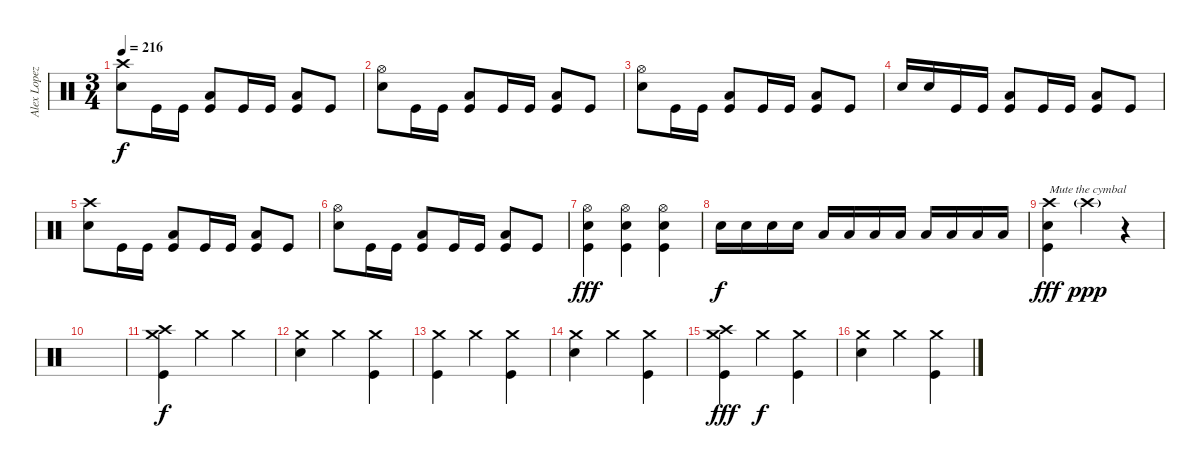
\track ("Alex Lopez" "Alex Lopez") {instrument percussion}
\staff {score}
\articulation defaults
\ts (3 4)
\tempo 216
\clef neutral
\ks c
("Crash high (hit)" "Electric Snare (hit)").8{dy f} "Kick (hit)".16 "Kick (hit)".16 ("Low Tom (hit)" "Kick (hit)").8 "Kick (hit)".16 "Kick (hit)".16 ("Low Floor Tom (hit)" "Kick (hit)").8 "Kick (hit)".8 |
("Hi-Hat (open)" "Electric Snare (hit)").8 "Kick (hit)".16 "Kick (hit)".16 ("Low Tom (hit)" "Kick (hit)").8 "Kick (hit)".16 "Kick (hit)".16 ("Low Floor Tom (hit)" "Kick (hit)").8 "Kick (hit)".8 |
("Hi-Hat (open)" "Electric Snare (hit)").8 "Kick (hit)".16 "Kick (hit)".16 ("Low Tom (hit)" "Kick (hit)").8 "Kick (hit)".16 "Kick (hit)".16 ("Low Floor Tom (hit)" "Kick (hit)").8 "Kick (hit)".8 |
"Electric Snare (hit)".16 "Electric Snare (hit)".16 "Kick (hit)".16 "Kick (hit)".16 ("Low Tom (hit)" "Kick (hit)").8 "Kick (hit)".16 "Kick (hit)".16 ("Low Tom (hit)" "Kick (hit)").8 "Kick (hit)".8 |
("Crash high (hit)" "Electric Snare (hit)").8 "Kick (hit)".16 "Kick (hit)".16 ("Low Tom (hit)" "Kick (hit)").8 "Kick (hit)".16 "Kick (hit)".16 ("Low Floor Tom (hit)" "Kick (hit)").8 "Kick (hit)".8 |
("Hi-Hat (open)" "Electric Snare (hit)").8 "Kick (hit)".16 "Kick (hit)".16 ("Low Tom (hit)" "Kick (hit)").8 "Kick (hit)".16 "Kick (hit)".16 ("Low Floor Tom (hit)" "Kick (hit)").8 "Kick (hit)".8 |
("Hi-Hat (open)" "Electric Snare (hit)" "Kick (hit)").4{dy fff} ("Hi-Hat (open)" "Electric Snare (hit)" "Kick (hit)").4 ("Hi-Hat (open)" "Electric Snare (hit)" "Kick (hit)").4 |
"Electric Snare (hit)".16{dy f} "Electric Snare (hit)".16 "Electric Snare (hit)".16 "Electric Snare (hit)".16 "Low Tom (hit)".16 "Low Tom (hit)".16 "Low Tom (hit)".16 "Low Tom (hit)".16 "Low Floor Tom (hit)".16 "Low Floor Tom (hit)".16 "Low Floor Tom (hit)".16 "Low Floor Tom (hit)".16 |
("Crash high (hit)" "Electric Snare (hit)" "Kick (hit)").4{txt "Mute the cymbal" dy fff} "Crash high (hit)"{g}.4{dy ppp} r.4 |
|
("Crash high (hit)" "Crash medium (hit)" "Kick (hit)").4{dy f} "Crash medium (hit)".4 "Crash medium (hit)".4 |
("Crash medium (hit)" "Electric Snare (hit)").4 "Crash medium (hit)".4 ("Crash medium (hit)" "Kick (hit)").4 |
("Crash medium (hit)" "Kick (hit)").4 "Crash medium (hit)".4 ("Crash medium (hit)" "Kick (hit)").4 |
("Crash medium (hit)" "Electric Snare (hit)").4 "Crash medium (hit)".4 ("Crash medium (hit)" "Kick (hit)").4 |
("Crash high (hit)" "Crash medium (hit)" "Kick (hit)").4{dy fff} "Crash medium (hit)".4{dy f} ("Crash medium (hit)" "Kick (hit)").4 |
("Crash medium (hit)" "Electric Snare (hit)").4 "Crash medium (hit)".4 ("Crash medium (hit)" "Kick (hit)").4
